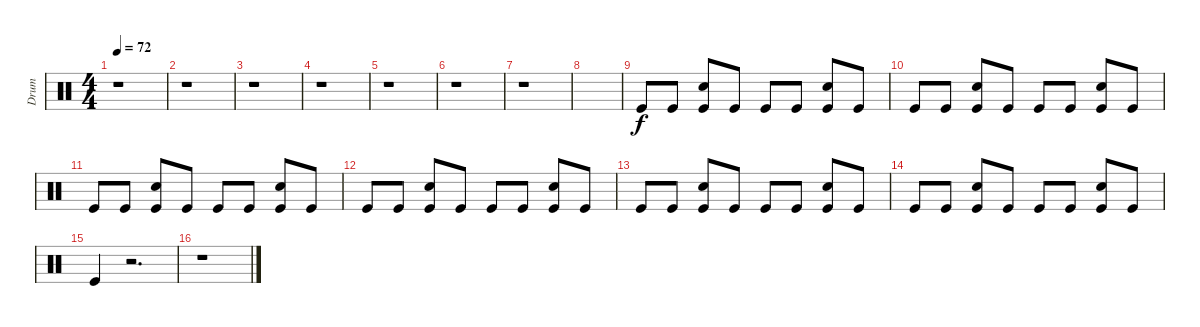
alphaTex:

\track ("Drum" "Drum") {instrument percussion}
\staff {score}
\articulation defaults
\ts (4 4)
\tempo 72
\clef neutral
\ks c
r.1{dy f} |
r.1 |
r.1 |
r.1 |
r.1 |
r.1 |
r.1 |
|
"Kick (hit)".8 "Kick (hit)".8 ("Kick (hit)" "Snare (hit) 2").8 "Kick (hit)".8 "Kick (hit)".8 "Kick (hit)".8 ("Kick (hit)" "Snare (hit) 2").8 "Kick (hit)".8 |
"Kick (hit)".8 "Kick (hit)".8 ("Kick (hit)" "Snare (hit) 2").8 "Kick (hit)".8 "Kick (hit)".8 "Kick (hit)".8 ("Kick (hit)" "Snare (hit) 2").8 "Kick (hit)".8 |
"Kick (hit)".8 "Kick (hit)".8 ("Kick (hit)" "Snare (hit) 2").8 "Kick (hit)".8 "Kick (hit)".8 "Kick (hit)".8 ("Kick (hit)" "Snare (hit) 2").8 "Kick (hit)".8 |
"Kick (hit)".8 "Kick (hit)".8 ("Kick (hit)" "Snare (hit) 2").8 "Kick (hit)".8 "Kick (hit)".8 "Kick (hit)".8 ("Kick (hit)" "Snare (hit) 2").8 "Kick (hit)".8 |
"Kick (hit)".8 "Kick (hit)".8 ("Kick (hit)" "Snare (hit) 2").8 "Kick (hit)".8 "Kick (hit)".8 "Kick (hit)".8 ("Kick (hit)" "Snare (hit) 2").8 "Kick (hit)".8 |
"Kick (hit)".8 "Kick (hit)".8 ("Kick (hit)" "Snare (hit) 2").8 "Kick (hit)".8 "Kick (hit)".8 "Kick (hit)".8 ("Kick (hit)" "Snare (hit) 2").8 "Kick (hit)".8 |
"Kick (hit)".4 r.2{d} |
r.1
